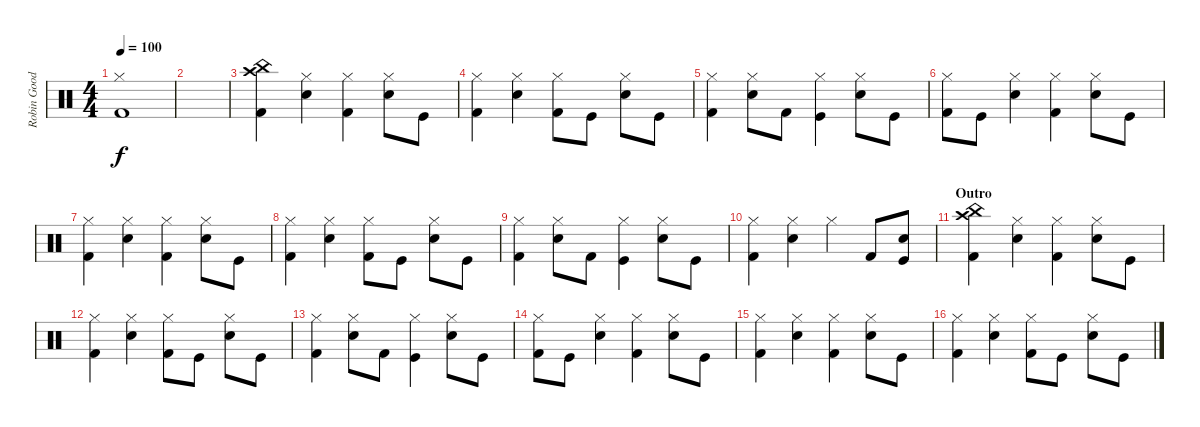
\track ("Robin Goodridge - Drums " "Robin Good") {instrument percussion}
\staff {score}
\articulation defaults
\ts (4 4)
\tempo 100
\clef neutral
\ks c
("Hi-Hat (closed)" "Kick (hit) 2").1{dy f} |
|
("Crash high (hit)" "China (hit)" "Kick (hit) 2").4 ("Hi-Hat (closed)" "Snare (hit) 2").4 ("Hi-Hat (closed)" "Kick (hit) 2").4 ("Hi-Hat (closed)" "Snare (hit) 2").8 "Kick (hit)".8 |
("Hi-Hat (closed)" "Kick (hit) 2").4 ("Hi-Hat (closed)" "Snare (hit) 2").4 ("Hi-Hat (closed)" "Kick (hit) 2").8 "Kick (hit)".8 ("Hi-Hat (closed)" "Snare (hit) 2").8 "Kick (hit)".8 |
("Hi-Hat (closed)" "Kick (hit) 2").4 ("Hi-Hat (closed)" "Snare (hit) 2").8 "Kick (hit) 2".8 ("Hi-Hat (closed)" "Kick (hit)").4 ("Hi-Hat (closed)" "Snare (hit) 2").8 "Kick (hit)".8 |
("Hi-Hat (closed)" "Kick (hit) 2").8 "Kick (hit)".8 ("Hi-Hat (closed)" "Snare (hit) 2").4 ("Hi-Hat (closed)" "Kick (hit) 2").4 ("Hi-Hat (closed)" "Snare (hit) 2").8 "Kick (hit)".8 |
("Hi-Hat (closed)" "Kick (hit) 2").4 ("Hi-Hat (closed)" "Snare (hit) 2").4 ("Hi-Hat (closed)" "Kick (hit) 2").4 ("Hi-Hat (closed)" "Snare (hit) 2").8 "Kick (hit)".8 |
("Hi-Hat (closed)" "Kick (hit) 2").4 ("Hi-Hat (closed)" "Snare (hit) 2").4 ("Hi-Hat (closed)" "Kick (hit) 2").8 "Kick (hit)".8 ("Hi-Hat (closed)" "Snare (hit) 2").8 "Kick (hit)".8 |
("Hi-Hat (closed)" "Kick (hit) 2").4 ("Hi-Hat (closed)" "Snare (hit) 2").8 "Kick (hit) 2".8 ("Hi-Hat (closed)" "Kick (hit)").4 ("Hi-Hat (closed)" "Snare (hit) 2").8 "Kick (hit)".8 |
("Hi-Hat (closed)" "Kick (hit) 2").4 ("Hi-Hat (closed)" "Snare (hit) 2").4 "Hi-Hat (closed)".4 "Kick (hit) 2".8 ("Snare (hit) 2" "Kick (hit)").8 |
\section ("" "Outro")
("Crash high (hit)" "China (hit)" "Kick (hit) 2").4 ("Hi-Hat (closed)" "Snare (hit) 2").4 ("Hi-Hat (closed)" "Kick (hit) 2").4 ("Hi-Hat (closed)" "Snare (hit) 2").8 "Kick (hit)".8 |
("Hi-Hat (closed)" "Kick (hit) 2").4 ("Hi-Hat (closed)" "Snare (hit) 2").4 ("Hi-Hat (closed)" "Kick (hit) 2").8 "Kick (hit)".8 ("Hi-Hat (closed)" "Snare (hit) 2").8 "Kick (hit)".8 |
("Hi-Hat (closed)" "Kick (hit) 2").4 ("Hi-Hat (closed)" "Snare (hit) 2").8 "Kick (hit) 2".8 ("Hi-Hat (closed)" "Kick (hit)").4 ("Hi-Hat (closed)" "Snare (hit) 2").8 "Kick (hit)".8 |
("Hi-Hat (closed)" "Kick (hit) 2").8 "Kick (hit)".8 ("Hi-Hat (closed)" "Snare (hit) 2").4 ("Hi-Hat (closed)" "Kick (hit) 2").4 ("Hi-Hat (closed)" "Snare (hit) 2").8 "Kick (hit)".8 |
("Hi-Hat (closed)" "Kick (hit) 2").4 ("Hi-Hat (closed)" "Snare (hit) 2").4 ("Hi-Hat (closed)" "Kick (hit) 2").4 ("Hi-Hat (closed)" "Snare (hit) 2").8 "Kick (hit)".8 |
("Hi-Hat (closed)" "Kick (hit) 2").4 ("Hi-Hat (closed)" "Snare (hit) 2").4 ("Hi-Hat (closed)" "Kick (hit) 2").8 "Kick (hit)".8 ("Hi-Hat (closed)" "Snare (hit) 2").8 "Kick (hit)".8
